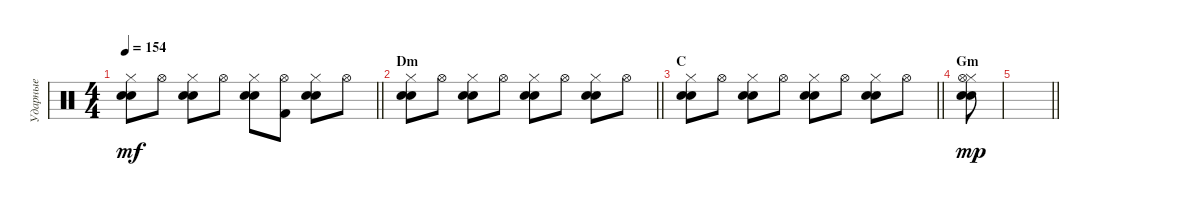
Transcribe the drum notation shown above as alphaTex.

\track ("Ударные" "Ударные") {instrument percussion}
\staff {score}
\articulation defaults
\ts (4 4)
\tempo 154
\clef neutral
\barLineRight lightlight
\ks c
("Hi-Hat (closed)" "Electric Snare (hit)" "Hand Clap (hit)").8{dy mf} "Hi-Hat (open)".8 ("Hi-Hat (closed)" "Electric Snare (hit)" "Hand Clap (hit)").8 "Hi-Hat (open)".8 ("Hi-Hat (closed)" "Electric Snare (hit)" "Hand Clap (hit)").8 ("Hi-Hat (open)" "Kick (hit) 2").8 ("Hi-Hat (closed)" "Electric Snare (hit)" "Hand Clap (hit)").8 "Hi-Hat (open)".8 |
\section ("" "Dm")
\barLineRight lightlight
("Hi-Hat (closed)" "Electric Snare (hit)" "Hand Clap (hit)").8 "Hi-Hat (open)".8 ("Hi-Hat (closed)" "Electric Snare (hit)" "Hand Clap (hit)").8 "Hi-Hat (open)".8 ("Hi-Hat (closed)" "Electric Snare (hit)" "Hand Clap (hit)").8 "Hi-Hat (open)".8 ("Hi-Hat (closed)" "Electric Snare (hit)" "Hand Clap (hit)").8 "Hi-Hat (open)".8 |
\section ("" "C")
\barLineRight lightlight
("Hi-Hat (closed)" "Electric Snare (hit)" "Hand Clap (hit)").8 "Hi-Hat (open)".8 ("Hi-Hat (closed)" "Electric Snare (hit)" "Hand Clap (hit)").8 "Hi-Hat (open)".8 ("Hi-Hat (closed)" "Electric Snare (hit)" "Hand Clap (hit)").8 "Hi-Hat (open)".8 ("Hi-Hat (closed)" "Electric Snare (hit)" "Hand Clap (hit)").8 "Hi-Hat (open)".8 |
\section ("" "Gm")
("Hi-Hat (closed)" "Electric Snare (hit)" "Hand Clap (hit)" "Hi-Hat (open)").8{dy mp} |
\barLineRight lightlight
